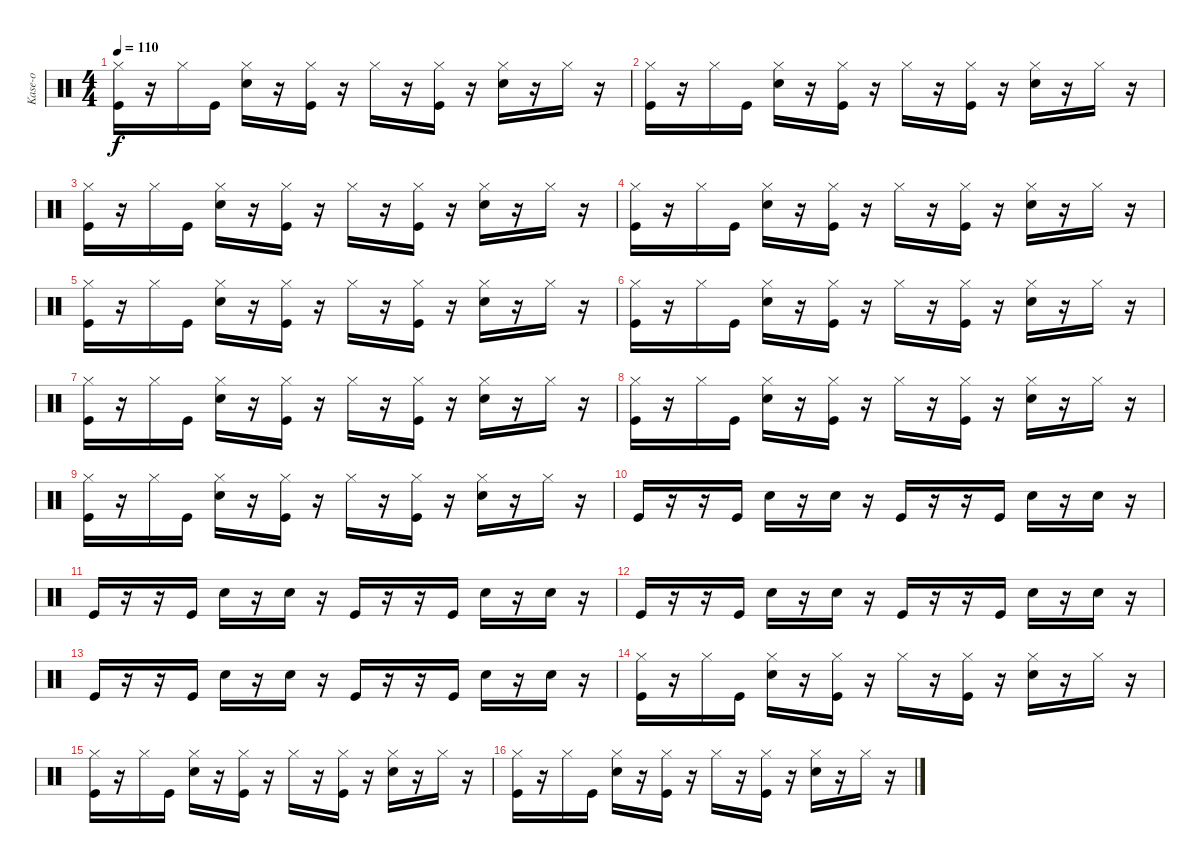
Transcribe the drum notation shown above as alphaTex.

\track ("Kase-o" "Kase-o") {instrument percussion}
\staff {score}
\articulation defaults
\ts (4 4)
\tempo 110
\clef neutral
\ks c
("Hi-Hat (closed)" "Kick (hit)").16{dy f} r.16 "Hi-Hat (closed)".16 "Kick (hit)".16 ("Hi-Hat (closed)" "Electric Snare (hit)").16 r.16 ("Hi-Hat (closed)" "Kick (hit)").16 r.16 "Hi-Hat (closed)".16 r.16 ("Hi-Hat (closed)" "Kick (hit)").16 r.16 ("Hi-Hat (closed)" "Electric Snare (hit)").16 r.16 "Hi-Hat (closed)".16 r.16 |
("Hi-Hat (closed)" "Kick (hit)").16 r.16 "Hi-Hat (closed)".16 "Kick (hit)".16 ("Hi-Hat (closed)" "Electric Snare (hit)").16 r.16 ("Hi-Hat (closed)" "Kick (hit)").16 r.16 "Hi-Hat (closed)".16 r.16 ("Hi-Hat (closed)" "Kick (hit)").16 r.16 ("Hi-Hat (closed)" "Electric Snare (hit)").16 r.16 "Hi-Hat (closed)".16 r.16 |
("Hi-Hat (closed)" "Kick (hit)").16 r.16 "Hi-Hat (closed)".16 "Kick (hit)".16 ("Hi-Hat (closed)" "Electric Snare (hit)").16 r.16 ("Hi-Hat (closed)" "Kick (hit)").16 r.16 "Hi-Hat (closed)".16 r.16 ("Hi-Hat (closed)" "Kick (hit)").16 r.16 ("Hi-Hat (closed)" "Electric Snare (hit)").16 r.16 "Hi-Hat (closed)".16 r.16 |
("Hi-Hat (closed)" "Kick (hit)").16 r.16 "Hi-Hat (closed)".16 "Kick (hit)".16 ("Hi-Hat (closed)" "Electric Snare (hit)").16 r.16 ("Hi-Hat (closed)" "Kick (hit)").16 r.16 "Hi-Hat (closed)".16 r.16 ("Hi-Hat (closed)" "Kick (hit)").16 r.16 ("Hi-Hat (closed)" "Electric Snare (hit)").16 r.16 "Hi-Hat (closed)".16 r.16 |
("Hi-Hat (closed)" "Kick (hit)").16 r.16 "Hi-Hat (closed)".16 "Kick (hit)".16 ("Hi-Hat (closed)" "Electric Snare (hit)").16 r.16 ("Hi-Hat (closed)" "Kick (hit)").16 r.16 "Hi-Hat (closed)".16 r.16 ("Hi-Hat (closed)" "Kick (hit)").16 r.16 ("Hi-Hat (closed)" "Electric Snare (hit)").16 r.16 "Hi-Hat (closed)".16 r.16 |
("Hi-Hat (closed)" "Kick (hit)").16 r.16 "Hi-Hat (closed)".16 "Kick (hit)".16 ("Hi-Hat (closed)" "Electric Snare (hit)").16 r.16 ("Hi-Hat (closed)" "Kick (hit)").16 r.16 "Hi-Hat (closed)".16 r.16 ("Hi-Hat (closed)" "Kick (hit)").16 r.16 ("Hi-Hat (closed)" "Electric Snare (hit)").16 r.16 "Hi-Hat (closed)".16 r.16 |
("Hi-Hat (closed)" "Kick (hit)").16 r.16 "Hi-Hat (closed)".16 "Kick (hit)".16 ("Hi-Hat (closed)" "Electric Snare (hit)").16 r.16 ("Hi-Hat (closed)" "Kick (hit)").16 r.16 "Hi-Hat (closed)".16 r.16 ("Hi-Hat (closed)" "Kick (hit)").16 r.16 ("Hi-Hat (closed)" "Electric Snare (hit)").16 r.16 "Hi-Hat (closed)".16 r.16 |
("Hi-Hat (closed)" "Kick (hit)").16 r.16 "Hi-Hat (closed)".16 "Kick (hit)".16 ("Hi-Hat (closed)" "Electric Snare (hit)").16 r.16 ("Hi-Hat (closed)" "Kick (hit)").16 r.16 "Hi-Hat (closed)".16 r.16 ("Hi-Hat (closed)" "Kick (hit)").16 r.16 ("Hi-Hat (closed)" "Electric Snare (hit)").16 r.16 "Hi-Hat (closed)".16 r.16 |
("Hi-Hat (closed)" "Kick (hit)").16 r.16 "Hi-Hat (closed)".16 "Kick (hit)".16 ("Hi-Hat (closed)" "Electric Snare (hit)").16 r.16 ("Hi-Hat (closed)" "Kick (hit)").16 r.16 "Hi-Hat (closed)".16 r.16 ("Hi-Hat (closed)" "Kick (hit)").16 r.16 ("Hi-Hat (closed)" "Electric Snare (hit)").16 r.16 "Hi-Hat (closed)".16 r.16 |
"Kick (hit)".16 r.16 r.16 "Kick (hit)".16 "Electric Snare (hit)".16 r.16 "Electric Snare (hit)".16 r.16 "Kick (hit)".16 r.16 r.16 "Kick (hit)".16 "Electric Snare (hit)".16 r.16 "Electric Snare (hit)".16 r.16 |
"Kick (hit)".16 r.16 r.16 "Kick (hit)".16 "Electric Snare (hit)".16 r.16 "Electric Snare (hit)".16 r.16 "Kick (hit)".16 r.16 r.16 "Kick (hit)".16 "Electric Snare (hit)".16 r.16 "Electric Snare (hit)".16 r.16 |
"Kick (hit)".16 r.16 r.16 "Kick (hit)".16 "Electric Snare (hit)".16 r.16 "Electric Snare (hit)".16 r.16 "Kick (hit)".16 r.16 r.16 "Kick (hit)".16 "Electric Snare (hit)".16 r.16 "Electric Snare (hit)".16 r.16 |
"Kick (hit)".16 r.16 r.16 "Kick (hit)".16 "Electric Snare (hit)".16 r.16 "Electric Snare (hit)".16 r.16 "Kick (hit)".16 r.16 r.16 "Kick (hit)".16 "Electric Snare (hit)".16 r.16 "Electric Snare (hit)".16 r.16 |
("Hi-Hat (closed)" "Kick (hit)").16 r.16 "Hi-Hat (closed)".16 "Kick (hit)".16 ("Hi-Hat (closed)" "Electric Snare (hit)").16 r.16 ("Hi-Hat (closed)" "Kick (hit)").16 r.16 "Hi-Hat (closed)".16 r.16 ("Hi-Hat (closed)" "Kick (hit)").16 r.16 ("Hi-Hat (closed)" "Electric Snare (hit)").16 r.16 "Hi-Hat (closed)".16 r.16 |
("Hi-Hat (closed)" "Kick (hit)").16 r.16 "Hi-Hat (closed)".16 "Kick (hit)".16 ("Hi-Hat (closed)" "Electric Snare (hit)").16 r.16 ("Hi-Hat (closed)" "Kick (hit)").16 r.16 "Hi-Hat (closed)".16 r.16 ("Hi-Hat (closed)" "Kick (hit)").16 r.16 ("Hi-Hat (closed)" "Electric Snare (hit)").16 r.16 "Hi-Hat (closed)".16 r.16 |
("Hi-Hat (closed)" "Kick (hit)").16 r.16 "Hi-Hat (closed)".16 "Kick (hit)".16 ("Hi-Hat (closed)" "Electric Snare (hit)").16 r.16 ("Hi-Hat (closed)" "Kick (hit)").16 r.16 "Hi-Hat (closed)".16 r.16 ("Hi-Hat (closed)" "Kick (hit)").16 r.16 ("Hi-Hat (closed)" "Electric Snare (hit)").16 r.16 "Hi-Hat (closed)".16 r.16
